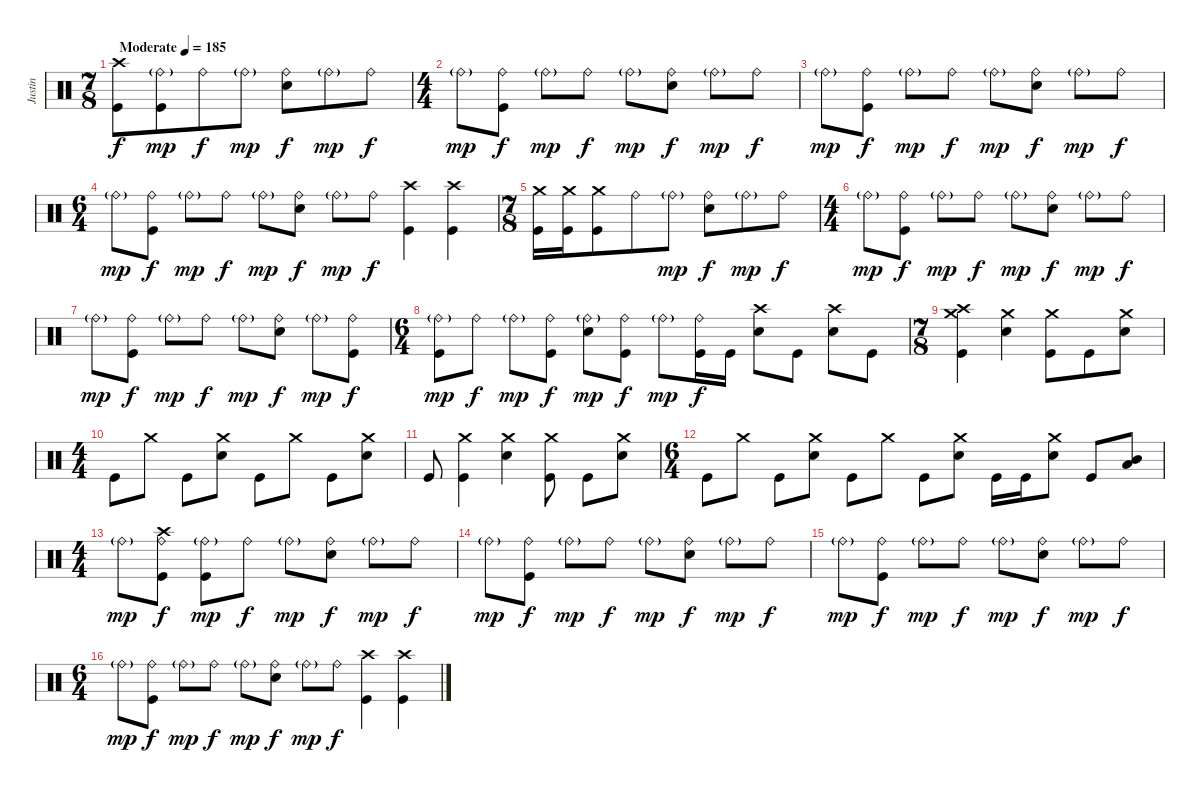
\track ("Justin" "Justin") {instrument percussion}
\staff {score}
\articulation defaults
\ts (7 8)
\tempo (185 "Moderate")
\clef neutral
\ks c
("Crash high (hit)" "Kick (hit)").8{dy f} ("Ride (bell)"{g} "Kick (hit)").8{dy mp} "Ride (bell)".8{dy f} "Ride (bell)"{g}.8{dy mp} ("Ride (bell)" "Electric Snare (hit)").8{dy f} "Ride (bell)"{g}.8{dy mp} "Ride (bell)".8{dy f} |
\ts (4 4)
"Ride (bell)"{g}.8{dy mp} ("Ride (bell)" "Kick (hit)").8{dy f} "Ride (bell)"{g}.8{dy mp} "Ride (bell)".8{dy f} "Ride (bell)"{g}.8{dy mp} ("Ride (bell)" "Electric Snare (hit)").8{dy f} "Ride (bell)"{g}.8{dy mp} "Ride (bell)".8{dy f} |
"Ride (bell)"{g}.8{dy mp} ("Ride (bell)" "Kick (hit)").8{dy f} "Ride (bell)"{g}.8{dy mp} "Ride (bell)".8{dy f} "Ride (bell)"{g}.8{dy mp} ("Ride (bell)" "Electric Snare (hit)").8{dy f} "Ride (bell)"{g}.8{dy mp} "Ride (bell)".8{dy f} |
\ts (6 4)
"Ride (bell)"{g}.8{dy mp} ("Ride (bell)" "Kick (hit)").8{dy f} "Ride (bell)"{g}.8{dy mp} "Ride (bell)".8{dy f} "Ride (bell)"{g}.8{dy mp} ("Ride (bell)" "Electric Snare (hit)").8{dy f} "Ride (bell)"{g}.8{dy mp} "Ride (bell)".8{dy f} ("Crash high (hit)" "Kick (hit)").4 ("Crash high (hit)" "Kick (hit)").4 |
\ts (7 8)
("Crash medium (hit)" "Kick (hit)").16 ("Crash medium (hit)" "Kick (hit)").16 ("Crash medium (hit)" "Kick (hit)").8 "Ride (bell)".8 "Ride (bell)"{g}.8{dy mp} ("Ride (bell)" "Electric Snare (hit)").8{dy f} "Ride (bell)"{g}.8{dy mp} "Ride (bell)".8{dy f} |
\ts (4 4)
"Ride (bell)"{g}.8{dy mp} ("Ride (bell)" "Kick (hit)").8{dy f} "Ride (bell)"{g}.8{dy mp} "Ride (bell)".8{dy f} "Ride (bell)"{g}.8{dy mp} ("Ride (bell)" "Electric Snare (hit)").8{dy f} "Ride (bell)"{g}.8{dy mp} "Ride (bell)".8{dy f} |
"Ride (bell)"{g}.8{dy mp} ("Ride (bell)" "Kick (hit)").8{dy f} "Ride (bell)"{g}.8{dy mp} "Ride (bell)".8{dy f} "Ride (bell)"{g}.8{dy mp} ("Ride (bell)" "Electric Snare (hit)").8{dy f} "Ride (bell)"{g}.8{dy mp} ("Ride (bell)" "Kick (hit)").8{dy f} |
\ts (6 4)
("Ride (bell)"{g} "Kick (hit)").8{dy mp} "Ride (bell)".8{dy f} "Ride (bell)"{g}.8{dy mp} ("Ride (bell)" "Kick (hit)").8{dy f} ("Ride (bell)"{g} "Electric Snare (hit)").8{dy mp} ("Ride (bell)" "Kick (hit)").8{dy f} "Ride (bell)"{g}.8{dy mp} ("Ride (bell)" "Kick (hit)").16{dy f} "Kick (hit)".16 ("Crash high (hit)" "Electric Snare (hit)").8 "Kick (hit)".8 ("Crash high (hit)" "Electric Snare (hit)").8 "Kick (hit)".8 |
\ts (7 8)
("Crash high (hit)" "Crash medium (hit)" "Kick (hit)").4 ("Crash medium (hit)" "Electric Snare (hit)").4 ("Crash medium (hit)" "Kick (hit)").8 "Kick (hit)".8 ("Crash medium (hit)" "Electric Snare (hit)").8 |
\ts (4 4)
"Kick (hit)".8 "Crash medium (hit)".8 "Kick (hit)".8 ("Crash medium (hit)" "Electric Snare (hit)").8 "Kick (hit)".8 "Crash medium (hit)".8 "Kick (hit)".8 ("Crash medium (hit)" "Electric Snare (hit)").8 |
"Kick (hit)".8 ("Crash medium (hit)" "Kick (hit)").4 ("Crash medium (hit)" "Electric Snare (hit)").4 ("Crash medium (hit)" "Kick (hit)").8 "Kick (hit)".8 ("Crash medium (hit)" "Electric Snare (hit)").8 |
\ts (6 4)
"Kick (hit)".8 "Crash medium (hit)".8 "Kick (hit)".8 ("Crash medium (hit)" "Electric Snare (hit)").8 "Kick (hit)".8 "Crash medium (hit)".8 "Kick (hit)".8 ("Crash medium (hit)" "Electric Snare (hit)").8 "Kick (hit)".16 "Kick (hit)".16 ("Crash medium (hit)" "Electric Snare (hit)").8 "Kick (hit)".8 ("Mid Tom (hit)" "Low Tom (hit)").8 |
\ts (4 4)
"Ride (bell)"{g}.8{dy mp} ("Crash high (hit)" "Ride (bell)" "Kick (hit)").8{dy f} ("Ride (bell)"{g} "Kick (hit)").8{dy mp} "Ride (bell)".8{dy f} "Ride (bell)"{g}.8{dy mp} ("Ride (bell)" "Electric Snare (hit)").8{dy f} "Ride (bell)"{g}.8{dy mp} "Ride (bell)".8{dy f} |
"Ride (bell)"{g}.8{dy mp} ("Ride (bell)" "Kick (hit)").8{dy f} "Ride (bell)"{g}.8{dy mp} "Ride (bell)".8{dy f} "Ride (bell)"{g}.8{dy mp} ("Ride (bell)" "Electric Snare (hit)").8{dy f} "Ride (bell)"{g}.8{dy mp} "Ride (bell)".8{dy f} |
"Ride (bell)"{g}.8{dy mp} ("Ride (bell)" "Kick (hit)").8{dy f} "Ride (bell)"{g}.8{dy mp} "Ride (bell)".8{dy f} "Ride (bell)"{g}.8{dy mp} ("Ride (bell)" "Electric Snare (hit)").8{dy f} "Ride (bell)"{g}.8{dy mp} "Ride (bell)".8{dy f} |
\ts (6 4)
"Ride (bell)"{g}.8{dy mp} ("Ride (bell)" "Kick (hit)").8{dy f} "Ride (bell)"{g}.8{dy mp} "Ride (bell)".8{dy f} "Ride (bell)"{g}.8{dy mp} ("Ride (bell)" "Electric Snare (hit)").8{dy f} "Ride (bell)"{g}.8{dy mp} "Ride (bell)".8{dy f} ("Crash high (hit)" "Kick (hit)").4 ("Crash high (hit)" "Kick (hit)").4
